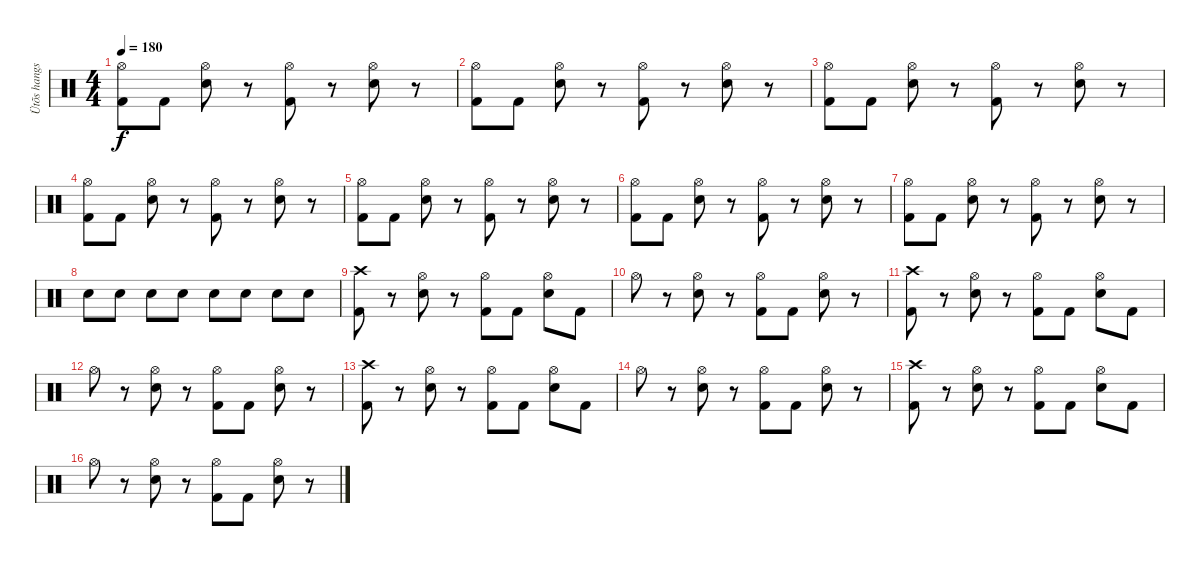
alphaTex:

\track ("Ütõs hangszer" "Ütõs hangs") {instrument percussion}
\staff {score}
\articulation defaults
\ts (4 4)
\tempo 180
\clef neutral
\ks c
("Hi-Hat (open)" "Kick (hit) 2").8{dy f} "Kick (hit) 2".8 ("Hi-Hat (open)" "Electric Snare (hit)").8 r.8 ("Hi-Hat (open)" "Kick (hit) 2").8 r.8 ("Hi-Hat (open)" "Electric Snare (hit)").8 r.8 |
("Hi-Hat (open)" "Kick (hit) 2").8 "Kick (hit) 2".8 ("Hi-Hat (open)" "Electric Snare (hit)").8 r.8 ("Hi-Hat (open)" "Kick (hit) 2").8 r.8 ("Hi-Hat (open)" "Electric Snare (hit)").8 r.8 |
("Hi-Hat (open)" "Kick (hit) 2").8 "Kick (hit) 2".8 ("Hi-Hat (open)" "Electric Snare (hit)").8 r.8 ("Hi-Hat (open)" "Kick (hit) 2").8 r.8 ("Hi-Hat (open)" "Electric Snare (hit)").8 r.8 |
("Hi-Hat (open)" "Kick (hit) 2").8 "Kick (hit) 2".8 ("Hi-Hat (open)" "Electric Snare (hit)").8 r.8 ("Hi-Hat (open)" "Kick (hit) 2").8 r.8 ("Hi-Hat (open)" "Electric Snare (hit)").8 r.8 |
("Hi-Hat (open)" "Kick (hit) 2").8 "Kick (hit) 2".8 ("Hi-Hat (open)" "Electric Snare (hit)").8 r.8 ("Hi-Hat (open)" "Kick (hit) 2").8 r.8 ("Hi-Hat (open)" "Electric Snare (hit)").8 r.8 |
("Hi-Hat (open)" "Kick (hit) 2").8 "Kick (hit) 2".8 ("Hi-Hat (open)" "Electric Snare (hit)").8 r.8 ("Hi-Hat (open)" "Kick (hit) 2").8 r.8 ("Hi-Hat (open)" "Electric Snare (hit)").8 r.8 |
("Hi-Hat (open)" "Kick (hit) 2").8 "Kick (hit) 2".8 ("Hi-Hat (open)" "Electric Snare (hit)").8 r.8 ("Hi-Hat (open)" "Kick (hit) 2").8 r.8 ("Hi-Hat (open)" "Electric Snare (hit)").8 r.8 |
"Electric Snare (hit)".8 "Electric Snare (hit)".8 "Electric Snare (hit)".8 "Electric Snare (hit)".8 "Electric Snare (hit)".8 "Electric Snare (hit)".8 "Electric Snare (hit)".8 "Electric Snare (hit)".8 |
("Crash high (hit)" "Kick (hit) 2").8 r.8 ("Hi-Hat (open)" "Electric Snare (hit)").8 r.8 ("Hi-Hat (open)" "Kick (hit) 2").8 "Kick (hit) 2".8 ("Hi-Hat (open)" "Electric Snare (hit)").8 "Kick (hit) 2".8 |
"Hi-Hat (open)".8 r.8 ("Hi-Hat (open)" "Electric Snare (hit)").8 r.8 ("Hi-Hat (open)" "Kick (hit) 2").8 "Kick (hit) 2".8 ("Hi-Hat (open)" "Electric Snare (hit)").8 r.8 |
("Crash high (hit)" "Kick (hit) 2").8 r.8 ("Hi-Hat (open)" "Electric Snare (hit)").8 r.8 ("Hi-Hat (open)" "Kick (hit) 2").8 "Kick (hit) 2".8 ("Hi-Hat (open)" "Electric Snare (hit)").8 "Kick (hit) 2".8 |
"Hi-Hat (open)".8 r.8 ("Hi-Hat (open)" "Electric Snare (hit)").8 r.8 ("Hi-Hat (open)" "Kick (hit) 2").8 "Kick (hit) 2".8 ("Hi-Hat (open)" "Electric Snare (hit)").8 r.8 |
("Crash high (hit)" "Kick (hit) 2").8 r.8 ("Hi-Hat (open)" "Electric Snare (hit)").8 r.8 ("Hi-Hat (open)" "Kick (hit) 2").8 "Kick (hit) 2".8 ("Hi-Hat (open)" "Electric Snare (hit)").8 "Kick (hit) 2".8 |
"Hi-Hat (open)".8 r.8 ("Hi-Hat (open)" "Electric Snare (hit)").8 r.8 ("Hi-Hat (open)" "Kick (hit) 2").8 "Kick (hit) 2".8 ("Hi-Hat (open)" "Electric Snare (hit)").8 r.8 |
("Crash high (hit)" "Kick (hit) 2").8 r.8 ("Hi-Hat (open)" "Electric Snare (hit)").8 r.8 ("Hi-Hat (open)" "Kick (hit) 2").8 "Kick (hit) 2".8 ("Hi-Hat (open)" "Electric Snare (hit)").8 "Kick (hit) 2".8 |
"Hi-Hat (open)".8 r.8 ("Hi-Hat (open)" "Electric Snare (hit)").8 r.8 ("Hi-Hat (open)" "Kick (hit) 2").8 "Kick (hit) 2".8 ("Hi-Hat (open)" "Electric Snare (hit)").8 r.8
